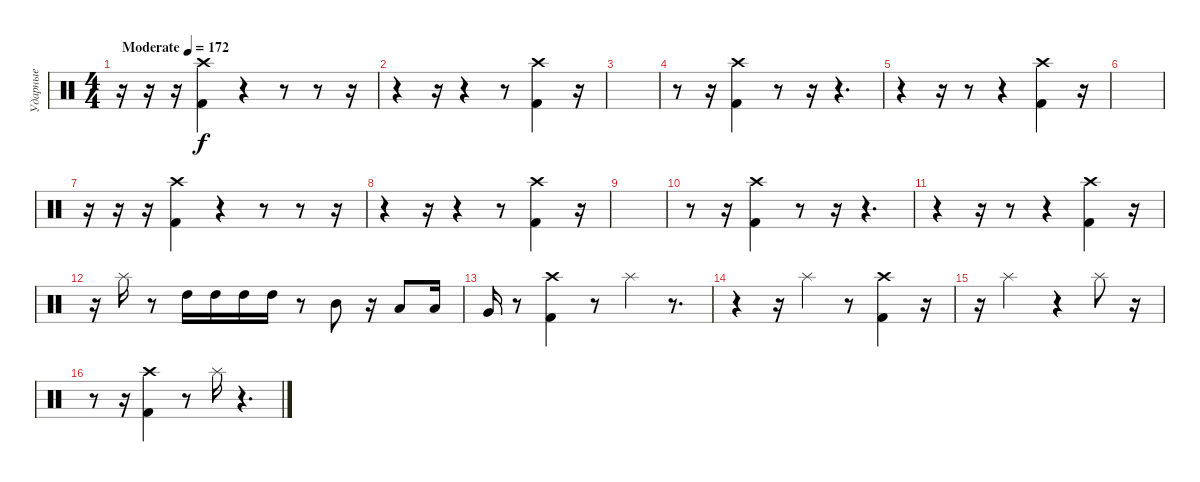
\track ("Ударные" "Ударные") {instrument percussion}
\staff {score}
\articulation defaults
\ts (4 4)
\tempo (172 "Moderate")
\clef neutral
\ks c
r.16{dy f} r.16 r.16 ("Crash high (hit)" "Kick (hit) 2").4 r.4 r.8 r.8 r.16 |
r.4 r.16 r.4 r.8 ("Crash high (hit)" "Kick (hit) 2").4 r.16 |
|
r.8 r.16 ("Crash high (hit)" "Kick (hit) 2").4 r.8 r.16 r.4{d} |
r.4 r.16 r.8 r.4 ("Crash high (hit)" "Kick (hit) 2").4 r.16 |
|
r.16 r.16 r.16 ("Crash high (hit)" "Kick (hit) 2").4 r.4 r.8 r.8 r.16 |
r.4 r.16 r.4 r.8 ("Crash high (hit)" "Kick (hit) 2").4 r.16 |
|
r.8 r.16 ("Crash high (hit)" "Kick (hit) 2").4 r.8 r.16 r.4{d} |
r.4 r.16 r.8 r.4 ("Crash high (hit)" "Kick (hit) 2").4 r.16 |
r.16 "Splash (hit)".16 r.8 "High Tom (hit)".16 "High Tom (hit)".16 "High Tom (hit)".16 "High Tom (hit)".16 r.8 "Mid Tom (hit)".8 r.16 "Low Tom (hit)".8 "Low Tom (hit)".16 |
"Very Low Tom (hit)".16 r.8 ("Crash high (hit)" "Kick (hit) 2").4 r.8 "Splash (hit)".4 r.8{d} |
r.4 r.16 "Splash (hit)".4 r.8 ("Crash high (hit)" "Kick (hit) 2").4 r.16 |
r.16 "Splash (hit)".2 r.4 "Splash (hit)".8 r.16 |
r.8 r.16 ("Crash high (hit)" "Kick (hit) 2").4 r.8 "Splash (hit)".16 r.4{d}
